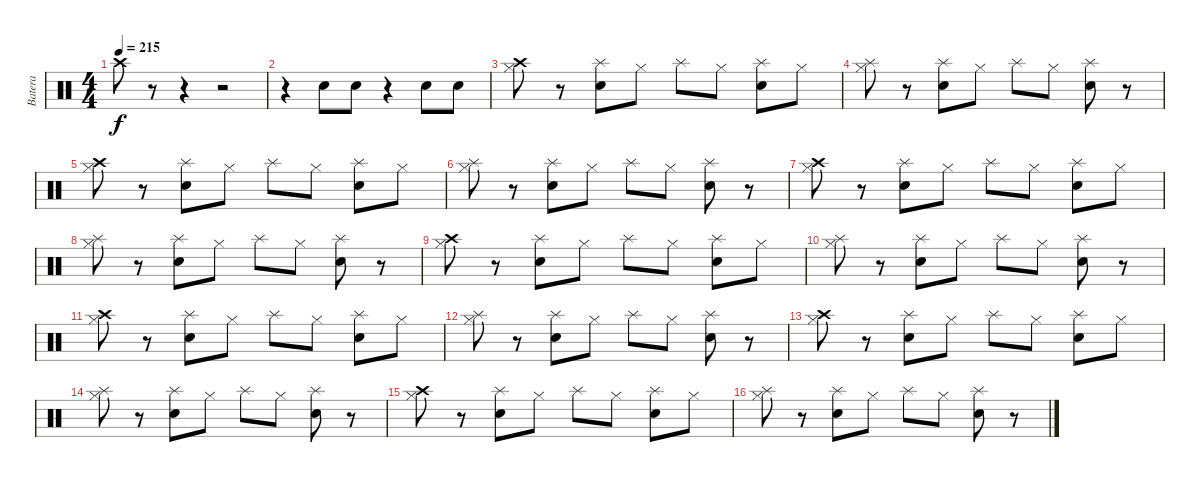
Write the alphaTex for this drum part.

\track ("Batera" "Batera") {instrument percussion}
\staff {score}
\articulation defaults
\ts (4 4)
\tempo 215
\clef neutral
\ks c "Crash high (hit)".8{dy f}
r.8 r.4 r.2 |
r.4 "Electric Snare (hit)".8 "Electric Snare (hit)".8 r.4 "Electric Snare (hit)".8 "Electric Snare (hit)".8 |
("Crash high (hit)" "Hi-Hat (closed)").8 r.8 ("Splash (hit)" "Electric Snare (hit)").8 "Hi-Hat (closed)".8 "Splash (hit)".8 "Hi-Hat (closed)".8 ("Splash (hit)" "Electric Snare (hit)").8 "Hi-Hat (closed)".8 |
("Splash (hit)" "Hi-Hat (closed)").8 r.8 ("Splash (hit)" "Electric Snare (hit)").8 "Hi-Hat (closed)".8 "Splash (hit)".8 "Hi-Hat (closed)".8 ("Splash (hit)" "Electric Snare (hit)").8 r.8 |
("Crash high (hit)" "Hi-Hat (closed)").8 r.8 ("Splash (hit)" "Electric Snare (hit)").8 "Hi-Hat (closed)".8 "Splash (hit)".8 "Hi-Hat (closed)".8 ("Splash (hit)" "Electric Snare (hit)").8 "Hi-Hat (closed)".8 |
("Splash (hit)" "Hi-Hat (closed)").8 r.8 ("Splash (hit)" "Electric Snare (hit)").8 "Hi-Hat (closed)".8 "Splash (hit)".8 "Hi-Hat (closed)".8 ("Splash (hit)" "Electric Snare (hit)").8 r.8 |
("Crash high (hit)" "Hi-Hat (closed)").8 r.8 ("Splash (hit)" "Electric Snare (hit)").8 "Hi-Hat (closed)".8 "Splash (hit)".8 "Hi-Hat (closed)".8 ("Splash (hit)" "Electric Snare (hit)").8 "Hi-Hat (closed)".8 |
("Splash (hit)" "Hi-Hat (closed)").8 r.8 ("Splash (hit)" "Electric Snare (hit)").8 "Hi-Hat (closed)".8 "Splash (hit)".8 "Hi-Hat (closed)".8 ("Splash (hit)" "Electric Snare (hit)").8 r.8 |
("Crash high (hit)" "Hi-Hat (closed)").8 r.8 ("Splash (hit)" "Electric Snare (hit)").8 "Hi-Hat (closed)".8 "Splash (hit)".8 "Hi-Hat (closed)".8 ("Splash (hit)" "Electric Snare (hit)").8 "Hi-Hat (closed)".8 |
("Splash (hit)" "Hi-Hat (closed)").8 r.8 ("Splash (hit)" "Electric Snare (hit)").8 "Hi-Hat (closed)".8 "Splash (hit)".8 "Hi-Hat (closed)".8 ("Splash (hit)" "Electric Snare (hit)").8 r.8 |
("Crash high (hit)" "Hi-Hat (closed)").8 r.8 ("Splash (hit)" "Electric Snare (hit)").8 "Hi-Hat (closed)".8 "Splash (hit)".8 "Hi-Hat (closed)".8 ("Splash (hit)" "Electric Snare (hit)").8 "Hi-Hat (closed)".8 |
("Splash (hit)" "Hi-Hat (closed)").8 r.8 ("Splash (hit)" "Electric Snare (hit)").8 "Hi-Hat (closed)".8 "Splash (hit)".8 "Hi-Hat (closed)".8 ("Splash (hit)" "Electric Snare (hit)").8 r.8 |
("Crash high (hit)" "Hi-Hat (closed)").8 r.8 ("Splash (hit)" "Electric Snare (hit)").8 "Hi-Hat (closed)".8 "Splash (hit)".8 "Hi-Hat (closed)".8 ("Splash (hit)" "Electric Snare (hit)").8 "Hi-Hat (closed)".8 |
("Splash (hit)" "Hi-Hat (closed)").8 r.8 ("Splash (hit)" "Electric Snare (hit)").8 "Hi-Hat (closed)".8 "Splash (hit)".8 "Hi-Hat (closed)".8 ("Splash (hit)" "Electric Snare (hit)").8 r.8 |
("Crash high (hit)" "Hi-Hat (closed)").8 r.8 ("Splash (hit)" "Electric Snare (hit)").8 "Hi-Hat (closed)".8 "Splash (hit)".8 "Hi-Hat (closed)".8 ("Splash (hit)" "Electric Snare (hit)").8 "Hi-Hat (closed)".8 |
("Splash (hit)" "Hi-Hat (closed)").8 r.8 ("Splash (hit)" "Electric Snare (hit)").8 "Hi-Hat (closed)".8 "Splash (hit)".8 "Hi-Hat (closed)".8 ("Splash (hit)" "Electric Snare (hit)").8 r.8
